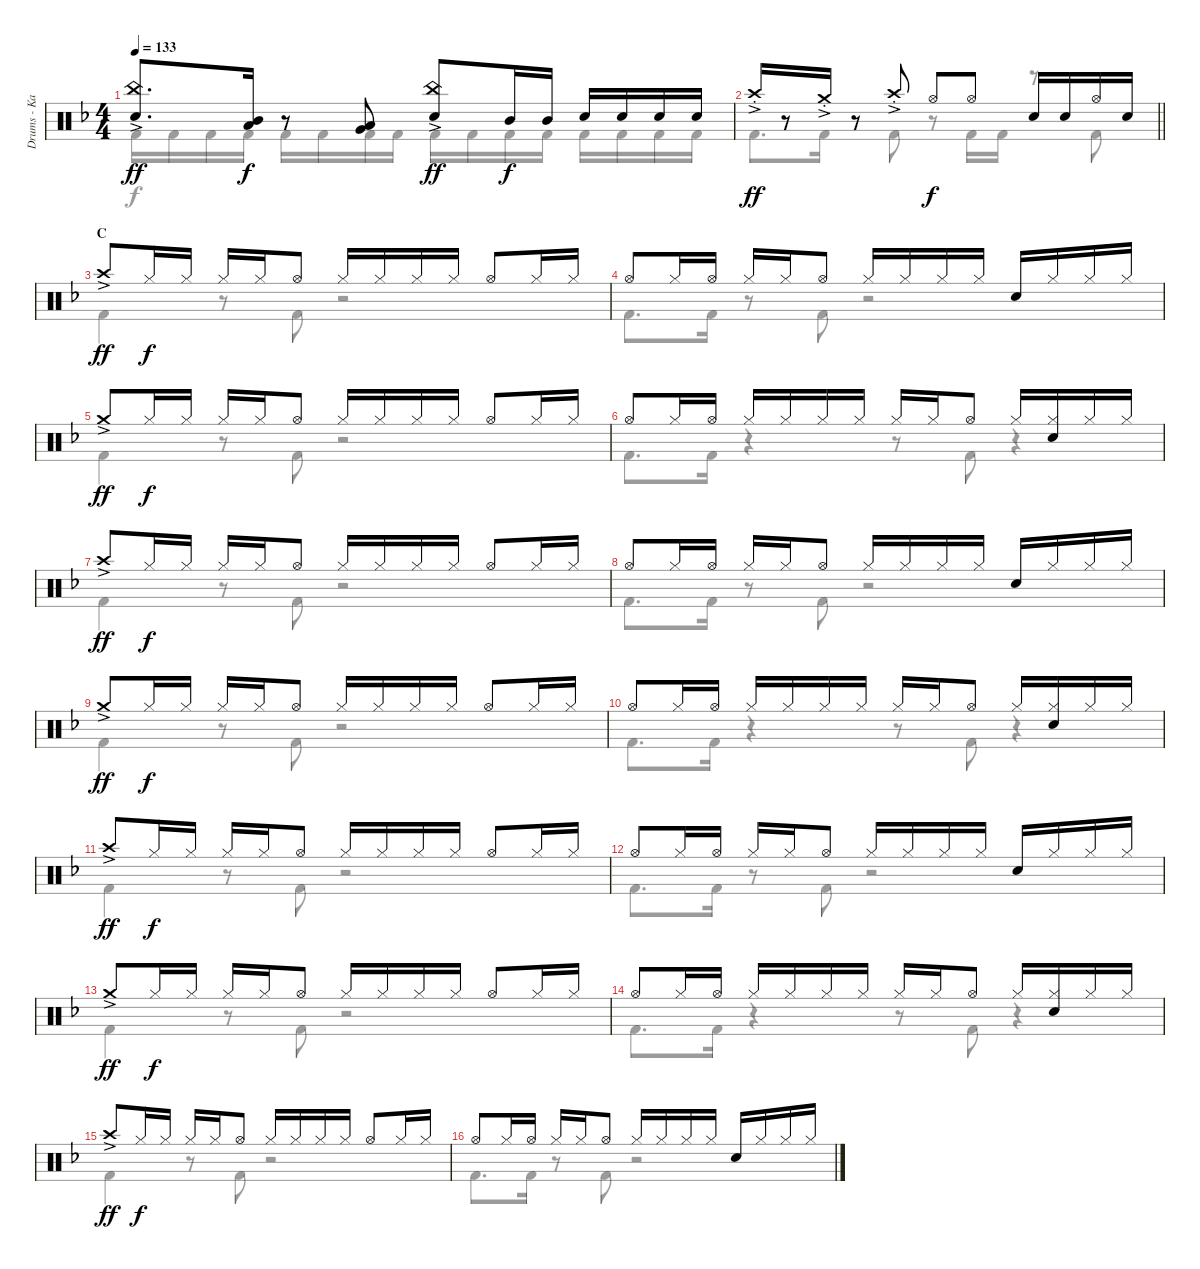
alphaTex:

\track ("Drums - Kai" "Drums - Ka") {instrument percussion}
\staff {score}
\articulation defaults
\voice
\ts (4 4)
\tempo 133
\clef neutral
\ks f
("China (hit)"{ac} "Snare (hit) 2").8{d dy ff} ("Mid Tom (hit)" "Low Tom (hit)").16{dy f} r.8 ("Low Tom (hit)" "Very Low Tom (hit)").8 ("China (hit)"{ac} "Snare (hit) 2").8{dy ff} "Mid Tom (hit)".16{dy f} "Mid Tom (hit)".16 "Snare (hit) 2".16 "Snare (hit) 2".16 "Snare (hit) 2".16 "Snare (hit) 2".16 |
\barLineRight lightlight "Crash high (hit)"{ac st}.16{dy ff}
r.8 "Crash medium (hit)"{ac st}.16 r.8 "Crash high (hit)"{ac st}.8 "Hi-Hat (open)".8{dy f} "Hi-Hat (open)".8 "Snare (hit) 2".16 "Snare (hit) 2".16 "Hi-Hat (open)".16 "Snare (hit) 2".16 |
\section ("" "C")
"Crash high (hit)"{ac}.8{dy ff} "Hi-Hat (closed)".16{dy f} "Hi-Hat (closed)".16 "Hi-Hat (closed)".16 "Hi-Hat (closed)".16 "Hi-Hat (open)".8 "Hi-Hat (closed)".16 "Hi-Hat (closed)".16 "Hi-Hat (closed)".16 "Hi-Hat (closed)".16 "Hi-Hat (open)".8 "Hi-Hat (closed)".16 "Hi-Hat (closed)".16 |
"Hi-Hat (open)".8 "Hi-Hat (closed)".16 "Hi-Hat (open)".16 "Hi-Hat (closed)".16 "Hi-Hat (closed)".16 "Hi-Hat (open)".8 "Hi-Hat (closed)".16 "Hi-Hat (closed)".16 "Hi-Hat (closed)".16 "Hi-Hat (closed)".16 "Snare (hit) 2".16 "Hi-Hat (closed)".16 "Hi-Hat (closed)".16 "Hi-Hat (closed)".16 |
"Crash medium (hit)"{ac}.8{dy ff} "Hi-Hat (closed)".16{dy f} "Hi-Hat (closed)".16 "Hi-Hat (closed)".16 "Hi-Hat (closed)".16 "Hi-Hat (open)".8 "Hi-Hat (closed)".16 "Hi-Hat (closed)".16 "Hi-Hat (closed)".16 "Hi-Hat (closed)".16 "Hi-Hat (open)".8 "Hi-Hat (closed)".16 "Hi-Hat (closed)".16 |
"Hi-Hat (open)".8 "Hi-Hat (closed)".16 "Hi-Hat (open)".16 "Hi-Hat (closed)".16 "Hi-Hat (closed)".16 "Hi-Hat (closed)".16 "Hi-Hat (closed)".16 "Hi-Hat (closed)".16 "Hi-Hat (closed)".16 "Hi-Hat (open)".8 "Hi-Hat (closed)".16 ("Hi-Hat (closed)" "Snare (hit) 2").16 "Hi-Hat (closed)".16 "Hi-Hat (closed)".16 |
"Crash high (hit)"{ac}.8{dy ff} "Hi-Hat (closed)".16{dy f} "Hi-Hat (closed)".16 "Hi-Hat (closed)".16 "Hi-Hat (closed)".16 "Hi-Hat (open)".8 "Hi-Hat (closed)".16 "Hi-Hat (closed)".16 "Hi-Hat (closed)".16 "Hi-Hat (closed)".16 "Hi-Hat (open)".8 "Hi-Hat (closed)".16 "Hi-Hat (closed)".16 |
"Hi-Hat (open)".8 "Hi-Hat (closed)".16 "Hi-Hat (open)".16 "Hi-Hat (closed)".16 "Hi-Hat (closed)".16 "Hi-Hat (open)".8 "Hi-Hat (closed)".16 "Hi-Hat (closed)".16 "Hi-Hat (closed)".16 "Hi-Hat (closed)".16 "Snare (hit) 2".16 "Hi-Hat (closed)".16 "Hi-Hat (closed)".16 "Hi-Hat (closed)".16 |
"Crash medium (hit)"{ac}.8{dy ff} "Hi-Hat (closed)".16{dy f} "Hi-Hat (closed)".16 "Hi-Hat (closed)".16 "Hi-Hat (closed)".16 "Hi-Hat (open)".8 "Hi-Hat (closed)".16 "Hi-Hat (closed)".16 "Hi-Hat (closed)".16 "Hi-Hat (closed)".16 "Hi-Hat (open)".8 "Hi-Hat (closed)".16 "Hi-Hat (closed)".16 |
"Hi-Hat (open)".8 "Hi-Hat (closed)".16 "Hi-Hat (open)".16 "Hi-Hat (closed)".16 "Hi-Hat (closed)".16 "Hi-Hat (closed)".16 "Hi-Hat (closed)".16 "Hi-Hat (closed)".16 "Hi-Hat (closed)".16 "Hi-Hat (open)".8 "Hi-Hat (closed)".16 ("Hi-Hat (closed)" "Snare (hit) 2").16 "Hi-Hat (closed)".16 "Hi-Hat (closed)".16 |
"Crash high (hit)"{ac}.8{dy ff} "Hi-Hat (closed)".16{dy f} "Hi-Hat (closed)".16 "Hi-Hat (closed)".16 "Hi-Hat (closed)".16 "Hi-Hat (open)".8 "Hi-Hat (closed)".16 "Hi-Hat (closed)".16 "Hi-Hat (closed)".16 "Hi-Hat (closed)".16 "Hi-Hat (open)".8 "Hi-Hat (closed)".16 "Hi-Hat (closed)".16 |
"Hi-Hat (open)".8 "Hi-Hat (closed)".16 "Hi-Hat (open)".16 "Hi-Hat (closed)".16 "Hi-Hat (closed)".16 "Hi-Hat (open)".8 "Hi-Hat (closed)".16 "Hi-Hat (closed)".16 "Hi-Hat (closed)".16 "Hi-Hat (closed)".16 "Snare (hit) 2".16 "Hi-Hat (closed)".16 "Hi-Hat (closed)".16 "Hi-Hat (closed)".16 |
"Crash medium (hit)"{ac}.8{dy ff} "Hi-Hat (closed)".16{dy f} "Hi-Hat (closed)".16 "Hi-Hat (closed)".16 "Hi-Hat (closed)".16 "Hi-Hat (open)".8 "Hi-Hat (closed)".16 "Hi-Hat (closed)".16 "Hi-Hat (closed)".16 "Hi-Hat (closed)".16 "Hi-Hat (open)".8 "Hi-Hat (closed)".16 "Hi-Hat (closed)".16 |
"Hi-Hat (open)".8 "Hi-Hat (closed)".16 "Hi-Hat (open)".16 "Hi-Hat (closed)".16 "Hi-Hat (closed)".16 "Hi-Hat (closed)".16 "Hi-Hat (closed)".16 "Hi-Hat (closed)".16 "Hi-Hat (closed)".16 "Hi-Hat (open)".8 "Hi-Hat (closed)".16 ("Hi-Hat (closed)" "Snare (hit) 2").16 "Hi-Hat (closed)".16 "Hi-Hat (closed)".16 |
"Crash high (hit)"{ac}.8{dy ff} "Hi-Hat (closed)".16{dy f} "Hi-Hat (closed)".16 "Hi-Hat (closed)".16 "Hi-Hat (closed)".16 "Hi-Hat (open)".8 "Hi-Hat (closed)".16 "Hi-Hat (closed)".16 "Hi-Hat (closed)".16 "Hi-Hat (closed)".16 "Hi-Hat (open)".8 "Hi-Hat (closed)".16 "Hi-Hat (closed)".16 |
"Hi-Hat (open)".8 "Hi-Hat (closed)".16 "Hi-Hat (open)".16 "Hi-Hat (closed)".16 "Hi-Hat (closed)".16 "Hi-Hat (open)".8 "Hi-Hat (closed)".16 "Hi-Hat (closed)".16 "Hi-Hat (closed)".16 "Hi-Hat (closed)".16 "Snare (hit) 2".16 "Hi-Hat (closed)".16 "Hi-Hat (closed)".16 "Hi-Hat (closed)".16
\voice
\clef neutral
\ottava regular
\simile none
\ks f "Kick (hit) 2".16{dy f} "Kick (hit) 2".16 "Kick (hit) 2".16 "Kick (hit) 2".16 "Kick (hit) 2".16 "Kick (hit) 2".16 "Kick (hit) 2".16 "Kick (hit) 2".16 "Kick (hit) 2".16 "Kick (hit) 2".16 "Kick (hit) 2".16 "Kick (hit) 2".16 "Kick (hit) 2".16 "Kick (hit) 2".16 "Kick (hit) 2".16 "Kick (hit) 2".16
|
\barLineRight lightlight "Kick (hit) 2".8{d} "Kick (hit) 2".16
r.8 "Kick (hit) 2".8 r.8 "Kick (hit) 2".16 "Kick (hit) 2".16 r.8 "Kick (hit) 2".8 |
"Kick (hit) 2".4 r.8 "Kick (hit) 2".8 r.2 |
"Kick (hit) 2".8{d} "Kick (hit) 2".16 r.8 "Kick (hit) 2".8 r.2 |
"Kick (hit) 2".4 r.8 "Kick (hit) 2".8 r.2 |
"Kick (hit) 2".8{d} "Kick (hit) 2".16 r.4 r.8 "Kick (hit) 2".8 r.4 |
"Kick (hit) 2".4 r.8 "Kick (hit) 2".8 r.2 |
"Kick (hit) 2".8{d} "Kick (hit) 2".16 r.8 "Kick (hit) 2".8 r.2 |
"Kick (hit) 2".4 r.8 "Kick (hit) 2".8 r.2 |
"Kick (hit) 2".8{d} "Kick (hit) 2".16 r.4 r.8 "Kick (hit) 2".8 r.4 |
"Kick (hit) 2".4 r.8 "Kick (hit) 2".8 r.2 |
"Kick (hit) 2".8{d} "Kick (hit) 2".16 r.8 "Kick (hit) 2".8 r.2 |
"Kick (hit) 2".4 r.8 "Kick (hit) 2".8 r.2 |
"Kick (hit) 2".8{d} "Kick (hit) 2".16 r.4 r.8 "Kick (hit) 2".8 r.4 |
"Kick (hit) 2".4 r.8 "Kick (hit) 2".8 r.2 |
"Kick (hit) 2".8{d} "Kick (hit) 2".16 r.8 "Kick (hit) 2".8 r.2
